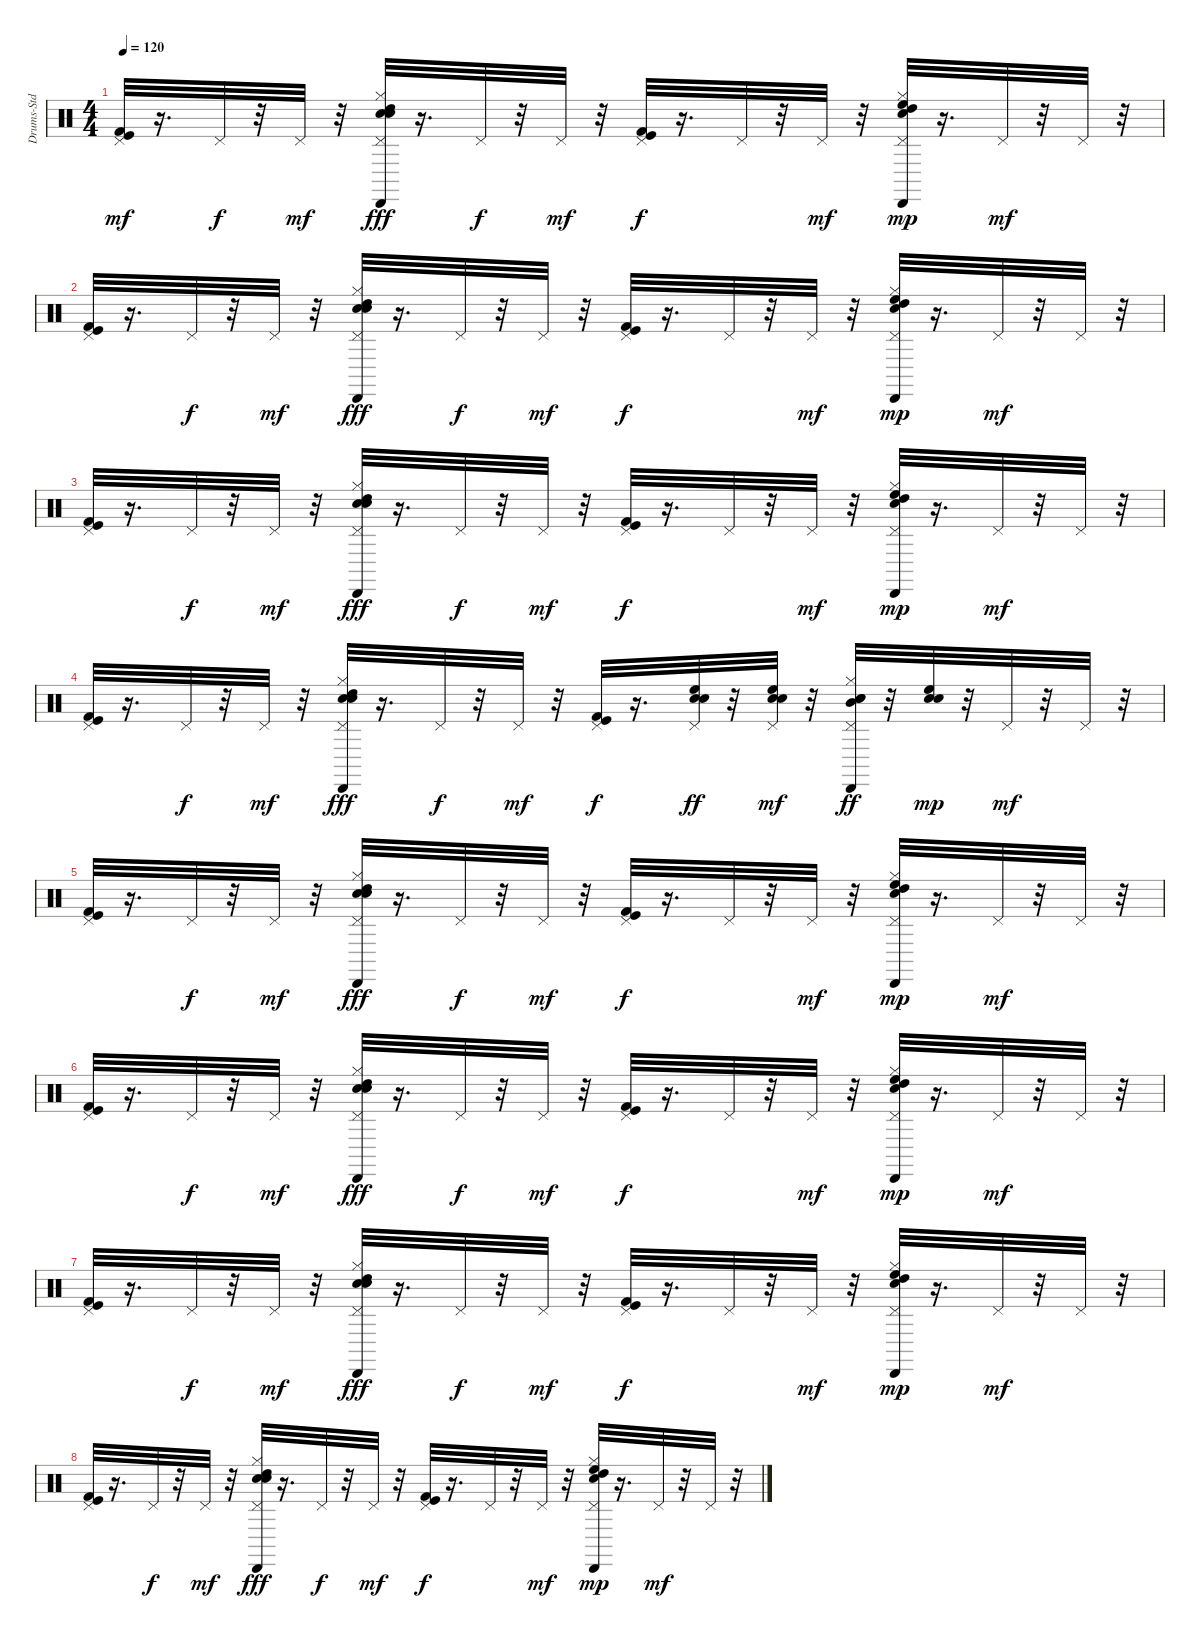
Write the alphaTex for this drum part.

\track ("Drums-Std" "Drums-Std") {instrument percussion}
\staff {score}
\articulation defaults
\ts (4 4)
\tempo 120
\clef neutral
\ks c
("Pedal Hi-Hat (hit)" "Kick (hit) 2" "Kick (hit)").32{dy mf} r.16{d} "Pedal Hi-Hat (hit)".32{dy f} r.32 "Pedal Hi-Hat (hit)".32{dy mf} r.32 ("Snare (hit) 2" "High Tom (hit)" "Cabasa (hit)" "Hi-Hat (closed)" "Pedal Hi-Hat (hit)" "Electric Snare (hit)").32{dy fff} r.16{d} "Pedal Hi-Hat (hit)".32{dy f} r.32 "Pedal Hi-Hat (hit)".32{dy mf} r.32 ("Pedal Hi-Hat (hit)" "Kick (hit) 2" "Kick (hit)").32{dy f} r.16{d} "Pedal Hi-Hat (hit)".32 r.32 "Pedal Hi-Hat (hit)".32{dy mf} r.32 ("Snare (hit) 2" "High Floor Tom (hit)" "High Tom (hit)" "Cabasa (hit)" "Hi-Hat (closed)" "Pedal Hi-Hat (hit)").32{dy mp} r.16{d} "Pedal Hi-Hat (hit)".32{dy mf} r.32 "Pedal Hi-Hat (hit)".32 r.32 |
("Pedal Hi-Hat (hit)" "Kick (hit) 2" "Kick (hit)").32 r.16{d} "Pedal Hi-Hat (hit)".32{dy f} r.32 "Pedal Hi-Hat (hit)".32{dy mf} r.32 ("Snare (hit) 2" "High Tom (hit)" "Cabasa (hit)" "Hi-Hat (closed)" "Pedal Hi-Hat (hit)" "Electric Snare (hit)").32{dy fff} r.16{d} "Pedal Hi-Hat (hit)".32{dy f} r.32 "Pedal Hi-Hat (hit)".32{dy mf} r.32 ("Pedal Hi-Hat (hit)" "Kick (hit) 2" "Kick (hit)").32{dy f} r.16{d} "Pedal Hi-Hat (hit)".32 r.32 "Pedal Hi-Hat (hit)".32{dy mf} r.32 ("Snare (hit) 2" "High Floor Tom (hit)" "High Tom (hit)" "Cabasa (hit)" "Hi-Hat (closed)" "Pedal Hi-Hat (hit)").32{dy mp} r.16{d} "Pedal Hi-Hat (hit)".32{dy mf} r.32 "Pedal Hi-Hat (hit)".32 r.32 |
("Pedal Hi-Hat (hit)" "Kick (hit) 2" "Kick (hit)").32 r.16{d} "Pedal Hi-Hat (hit)".32{dy f} r.32 "Pedal Hi-Hat (hit)".32{dy mf} r.32 ("Snare (hit) 2" "High Tom (hit)" "Cabasa (hit)" "Hi-Hat (closed)" "Pedal Hi-Hat (hit)" "Electric Snare (hit)").32{dy fff} r.16{d} "Pedal Hi-Hat (hit)".32{dy f} r.32 "Pedal Hi-Hat (hit)".32{dy mf} r.32 ("Pedal Hi-Hat (hit)" "Kick (hit) 2" "Kick (hit)").32{dy f} r.16{d} "Pedal Hi-Hat (hit)".32 r.32 "Pedal Hi-Hat (hit)".32{dy mf} r.32 ("Snare (hit) 2" "High Floor Tom (hit)" "High Tom (hit)" "Cabasa (hit)" "Hi-Hat (closed)" "Pedal Hi-Hat (hit)").32{dy mp} r.16{d} "Pedal Hi-Hat (hit)".32{dy mf} r.32 "Pedal Hi-Hat (hit)".32 r.32 |
("Pedal Hi-Hat (hit)" "Kick (hit) 2" "Kick (hit)").32 r.16{d} "Pedal Hi-Hat (hit)".32{dy f} r.32 "Pedal Hi-Hat (hit)".32{dy mf} r.32 ("Snare (hit) 2" "High Tom (hit)" "Cabasa (hit)" "Hi-Hat (closed)" "Pedal Hi-Hat (hit)" "Electric Snare (hit)").32{dy fff} r.16{d} "Pedal Hi-Hat (hit)".32{dy f} r.32 "Pedal Hi-Hat (hit)".32{dy mf} r.32 ("Pedal Hi-Hat (hit)" "Kick (hit) 2" "Kick (hit)").32{dy f} r.16{d} ("High Floor Tom (hit)" "Snare (hit) 2" "Electric Snare (hit)" "Pedal Hi-Hat (hit)").32{dy ff} r.32 ("High Floor Tom (hit)" "Snare (hit) 2" "Electric Snare (hit)" "Pedal Hi-Hat (hit)").32{dy mf} r.32 ("Hi-Hat (closed)" "Electric Snare (hit)" "Mid Tom (hit)" "Snare (hit) 2" "Cabasa (hit)" "Pedal Hi-Hat (hit)").32{dy ff} r.32 ("High Floor Tom (hit)" "Electric Snare (hit)" "Snare (hit) 2").32{dy mp} r.32 "Pedal Hi-Hat (hit)".32{dy mf} r.32 "Pedal Hi-Hat (hit)".32 r.32 |
("Pedal Hi-Hat (hit)" "Kick (hit) 2" "Kick (hit)").32 r.16{d} "Pedal Hi-Hat (hit)".32{dy f} r.32 "Pedal Hi-Hat (hit)".32{dy mf} r.32 ("Snare (hit) 2" "High Tom (hit)" "Cabasa (hit)" "Hi-Hat (closed)" "Pedal Hi-Hat (hit)" "Electric Snare (hit)").32{dy fff} r.16{d} "Pedal Hi-Hat (hit)".32{dy f} r.32 "Pedal Hi-Hat (hit)".32{dy mf} r.32 ("Pedal Hi-Hat (hit)" "Kick (hit) 2" "Kick (hit)").32{dy f} r.16{d} "Pedal Hi-Hat (hit)".32 r.32 "Pedal Hi-Hat (hit)".32{dy mf} r.32 ("Snare (hit) 2" "High Floor Tom (hit)" "High Tom (hit)" "Cabasa (hit)" "Hi-Hat (closed)" "Pedal Hi-Hat (hit)").32{dy mp} r.16{d} "Pedal Hi-Hat (hit)".32{dy mf} r.32 "Pedal Hi-Hat (hit)".32 r.32 |
("Pedal Hi-Hat (hit)" "Kick (hit) 2" "Kick (hit)").32 r.16{d} "Pedal Hi-Hat (hit)".32{dy f} r.32 "Pedal Hi-Hat (hit)".32{dy mf} r.32 ("Snare (hit) 2" "High Tom (hit)" "Cabasa (hit)" "Hi-Hat (closed)" "Pedal Hi-Hat (hit)" "Electric Snare (hit)").32{dy fff} r.16{d} "Pedal Hi-Hat (hit)".32{dy f} r.32 "Pedal Hi-Hat (hit)".32{dy mf} r.32 ("Pedal Hi-Hat (hit)" "Kick (hit) 2" "Kick (hit)").32{dy f} r.16{d} "Pedal Hi-Hat (hit)".32 r.32 "Pedal Hi-Hat (hit)".32{dy mf} r.32 ("Snare (hit) 2" "High Floor Tom (hit)" "High Tom (hit)" "Cabasa (hit)" "Hi-Hat (closed)" "Pedal Hi-Hat (hit)").32{dy mp} r.16{d} "Pedal Hi-Hat (hit)".32{dy mf} r.32 "Pedal Hi-Hat (hit)".32 r.32 |
("Pedal Hi-Hat (hit)" "Kick (hit) 2" "Kick (hit)").32 r.16{d} "Pedal Hi-Hat (hit)".32{dy f} r.32 "Pedal Hi-Hat (hit)".32{dy mf} r.32 ("Snare (hit) 2" "High Tom (hit)" "Cabasa (hit)" "Hi-Hat (closed)" "Pedal Hi-Hat (hit)" "Electric Snare (hit)").32{dy fff} r.16{d} "Pedal Hi-Hat (hit)".32{dy f} r.32 "Pedal Hi-Hat (hit)".32{dy mf} r.32 ("Pedal Hi-Hat (hit)" "Kick (hit) 2" "Kick (hit)").32{dy f} r.16{d} "Pedal Hi-Hat (hit)".32 r.32 "Pedal Hi-Hat (hit)".32{dy mf} r.32 ("Snare (hit) 2" "High Floor Tom (hit)" "High Tom (hit)" "Cabasa (hit)" "Hi-Hat (closed)" "Pedal Hi-Hat (hit)").32{dy mp} r.16{d} "Pedal Hi-Hat (hit)".32{dy mf} r.32 "Pedal Hi-Hat (hit)".32 r.32 |
("Pedal Hi-Hat (hit)" "Kick (hit) 2" "Kick (hit)").32 r.16{d} "Pedal Hi-Hat (hit)".32{dy f} r.32 "Pedal Hi-Hat (hit)".32{dy mf} r.32 ("Snare (hit) 2" "High Tom (hit)" "Cabasa (hit)" "Hi-Hat (closed)" "Pedal Hi-Hat (hit)" "Electric Snare (hit)").32{dy fff} r.16{d} "Pedal Hi-Hat (hit)".32{dy f} r.32 "Pedal Hi-Hat (hit)".32{dy mf} r.32 ("Pedal Hi-Hat (hit)" "Kick (hit) 2" "Kick (hit)").32{dy f} r.16{d} "Pedal Hi-Hat (hit)".32 r.32 "Pedal Hi-Hat (hit)".32{dy mf} r.32 ("Snare (hit) 2" "High Floor Tom (hit)" "High Tom (hit)" "Cabasa (hit)" "Hi-Hat (closed)" "Pedal Hi-Hat (hit)").32{dy mp} r.16{d} "Pedal Hi-Hat (hit)".32{dy mf} r.32 "Pedal Hi-Hat (hit)".32 r.32
